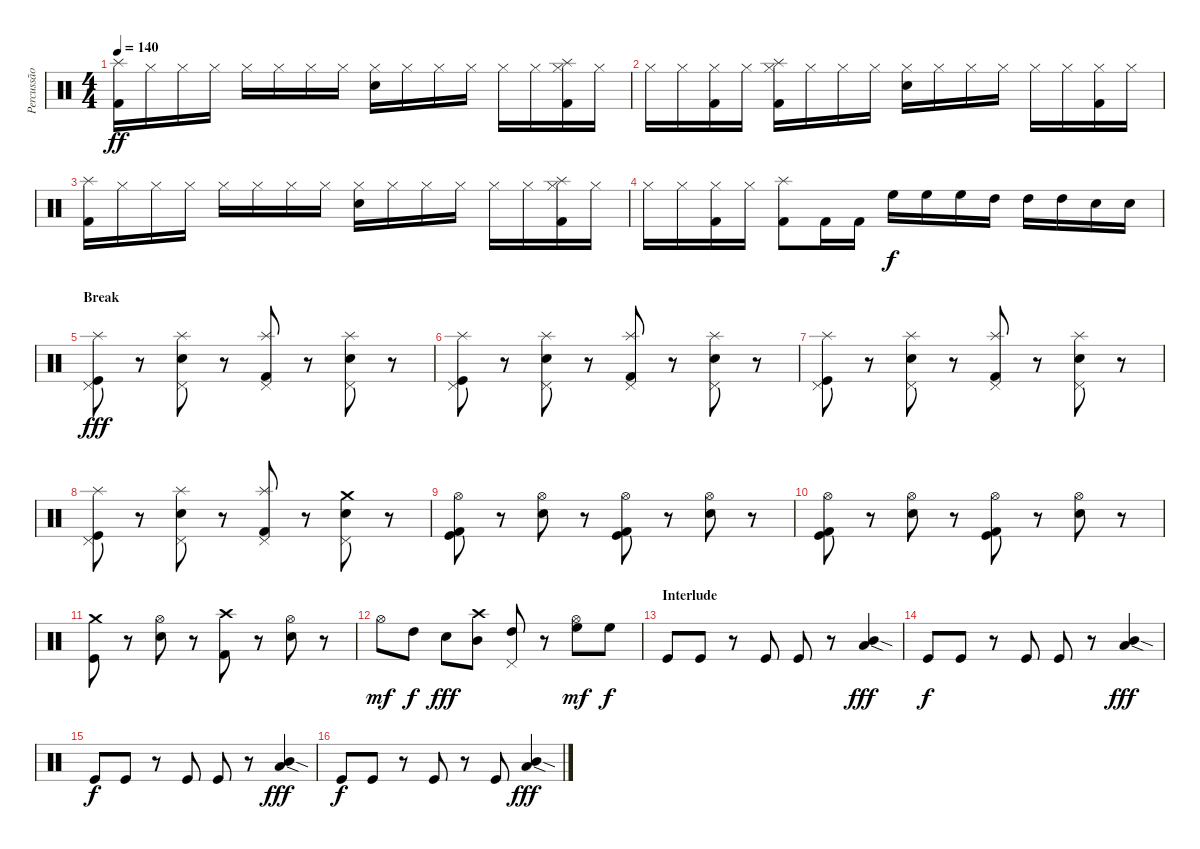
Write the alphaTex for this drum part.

\track ("Percussão (Lucas)" "Percussão ") {instrument percussion}
\staff {score}
\articulation defaults
\ts (4 4)
\tempo 140
\clef neutral
\ks c
("Kick (hit) 2" "Splash (hit)").16{dy ff} "Hi-Hat (closed)".16 "Hi-Hat (closed)".16 "Hi-Hat (closed)".16 "Hi-Hat (closed)".16 "Hi-Hat (closed)".16 "Hi-Hat (closed)".16 "Hi-Hat (closed)".16 ("Electric Snare (hit)" "Hi-Hat (closed)").16 "Hi-Hat (closed)".16 "Hi-Hat (closed)".16 "Hi-Hat (closed)".16 "Hi-Hat (closed)".16 "Hi-Hat (closed)".16 ("Kick (hit) 2" "Hi-Hat (closed)" "Splash (hit)").16 "Hi-Hat (closed)".16 |
"Hi-Hat (closed)".16 "Hi-Hat (closed)".16 ("Kick (hit) 2" "Hi-Hat (closed)").16 "Hi-Hat (closed)".16 ("Kick (hit) 2" "Hi-Hat (closed)" "Splash (hit)").16 "Hi-Hat (closed)".16 "Hi-Hat (closed)".16 "Hi-Hat (closed)".16 ("Electric Snare (hit)" "Hi-Hat (closed)").16 "Hi-Hat (closed)".16 "Hi-Hat (closed)".16 "Hi-Hat (closed)".16 "Hi-Hat (closed)".16 "Hi-Hat (closed)".16 ("Kick (hit) 2" "Hi-Hat (closed)").16 "Hi-Hat (closed)".16 |
("Kick (hit) 2" "Splash (hit)").16 "Hi-Hat (closed)".16 "Hi-Hat (closed)".16 "Hi-Hat (closed)".16 "Hi-Hat (closed)".16 "Hi-Hat (closed)".16 "Hi-Hat (closed)".16 "Hi-Hat (closed)".16 ("Electric Snare (hit)" "Hi-Hat (closed)").16 "Hi-Hat (closed)".16 "Hi-Hat (closed)".16 "Hi-Hat (closed)".16 "Hi-Hat (closed)".16 "Hi-Hat (closed)".16 ("Kick (hit) 2" "Hi-Hat (closed)" "Splash (hit)").16 "Hi-Hat (closed)".16 |
"Hi-Hat (closed)".16 "Hi-Hat (closed)".16 ("Kick (hit) 2" "Hi-Hat (closed)").16 "Hi-Hat (closed)".16 ("Kick (hit) 2" "Splash (hit)").8 "Kick (hit) 2".16 "Kick (hit) 2".16 "High Floor Tom (hit)".16{dy f} "High Floor Tom (hit)".16 "High Floor Tom (hit)".16 "High Tom (hit)".16 "High Tom (hit)".16 "High Tom (hit)".16 "Electric Snare (hit)".16 "Electric Snare (hit)".16 |
\section ("" "Break")
("Splash (hit)" "Pedal Hi-Hat (hit)" "Kick (hit)").8{dy fff} r.8 ("Splash (hit)" "Pedal Hi-Hat (hit)" "Electric Snare (hit)").8 r.8 ("Splash (hit)" "Pedal Hi-Hat (hit)" "Kick (hit) 2").8 r.8 ("Splash (hit)" "Pedal Hi-Hat (hit)" "Electric Snare (hit)").8 r.8 |
("Splash (hit)" "Pedal Hi-Hat (hit)" "Kick (hit)").8 r.8 ("Splash (hit)" "Pedal Hi-Hat (hit)" "Electric Snare (hit)").8 r.8 ("Splash (hit)" "Pedal Hi-Hat (hit)" "Kick (hit) 2").8 r.8 ("Splash (hit)" "Pedal Hi-Hat (hit)" "Electric Snare (hit)").8 r.8 |
("Splash (hit)" "Pedal Hi-Hat (hit)" "Kick (hit)").8 r.8 ("Splash (hit)" "Pedal Hi-Hat (hit)" "Electric Snare (hit)").8 r.8 ("Splash (hit)" "Pedal Hi-Hat (hit)" "Kick (hit) 2").8 r.8 ("Splash (hit)" "Pedal Hi-Hat (hit)" "Electric Snare (hit)").8 r.8 |
("Splash (hit)" "Pedal Hi-Hat (hit)" "Kick (hit)").8 r.8 ("Splash (hit)" "Pedal Hi-Hat (hit)" "Electric Snare (hit)").8 r.8 ("Splash (hit)" "Pedal Hi-Hat (hit)" "Kick (hit) 2").8 r.8 ("Crash medium (hit)" "Pedal Hi-Hat (hit)" "Electric Snare (hit)").8 r.8 |
("Hi-Hat (open)" "Kick (hit) 2" "Kick (hit)").8 r.8 ("Hi-Hat (open)" "Electric Snare (hit)").8 r.8 ("Hi-Hat (open)" "Kick (hit) 2" "Kick (hit)").8 r.8 ("Hi-Hat (open)" "Electric Snare (hit)").8 r.8 |
("Hi-Hat (open)" "Kick (hit) 2" "Kick (hit)").8 r.8 ("Hi-Hat (open)" "Electric Snare (hit)").8 r.8 ("Hi-Hat (open)" "Kick (hit) 2" "Kick (hit)").8 r.8 ("Hi-Hat (open)" "Electric Snare (hit)").8 r.8 |
("Crash medium (hit)" "Kick (hit)").8 r.8 ("Hi-Hat (open)" "Electric Snare (hit)").8 r.8 ("Crash high (hit)" "Kick (hit) 2").8 r.8 ("Hi-Hat (open)" "Electric Snare (hit)").8 r.8 |
"Hi-Hat (open)".8{dy mf} "High Tom (hit)".8{dy f} "Electric Snare (hit)".8{dy fff} ("Crash high (hit)" "Mid Tom (hit)").8 ("Pedal Hi-Hat (hit)" "High Tom (hit)").8 r.8 ("Hi-Hat (open)" "High Floor Tom (hit)").8{dy mf} "High Floor Tom (hit)".8{dy f} |
\section ("" "Interlude")
"Kick (hit)".8 "Kick (hit)".8 r.8 "Kick (hit)".8 "Kick (hit)".8 r.8 ("Mid Tom (hit)"{sod} "Low Tom (hit)"{sod}).4{dy fff} |
"Kick (hit)".8{dy f} "Kick (hit)".8 r.8 "Kick (hit)".8 "Kick (hit)".8 r.8 ("Mid Tom (hit)"{sod} "Low Tom (hit)"{sod}).4{dy fff} |
"Kick (hit)".8{dy f} "Kick (hit)".8 r.8 "Kick (hit)".8 "Kick (hit)".8 r.8 ("Mid Tom (hit)"{sod} "Low Tom (hit)"{sod}).4{dy fff} |
"Kick (hit)".8{dy f} "Kick (hit)".8 r.8 "Kick (hit)".8 r.8 "Kick (hit)".8 ("Mid Tom (hit)"{sod} "Low Tom (hit)"{sod}).4{dy fff}
